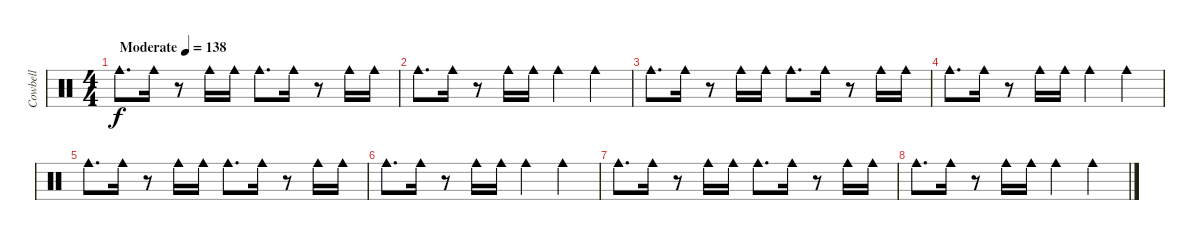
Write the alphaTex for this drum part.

\track ("Cowbell" "Cowbell") {instrument percussion}
\staff {score}
\articulation defaults
\ts (4 4)
\tempo (138 "Moderate")
\clef neutral
\ks c "Cowbell medium (hit)".8{d dy f} "Cowbell medium (hit)".16
r.8 "Cowbell medium (hit)".16 "Cowbell medium (hit)".16 "Cowbell medium (hit)".8{d} "Cowbell medium (hit)".16 r.8 "Cowbell medium (hit)".16 "Cowbell medium (hit)".16 |
"Cowbell medium (hit)".8{d} "Cowbell medium (hit)".16 r.8 "Cowbell medium (hit)".16 "Cowbell medium (hit)".16 "Cowbell medium (hit)".4 "Cowbell medium (hit)".4 |
"Cowbell medium (hit)".8{d} "Cowbell medium (hit)".16 r.8 "Cowbell medium (hit)".16 "Cowbell medium (hit)".16 "Cowbell medium (hit)".8{d} "Cowbell medium (hit)".16 r.8 "Cowbell medium (hit)".16 "Cowbell medium (hit)".16 |
"Cowbell medium (hit)".8{d} "Cowbell medium (hit)".16 r.8 "Cowbell medium (hit)".16 "Cowbell medium (hit)".16 "Cowbell medium (hit)".4 "Cowbell medium (hit)".4 |
"Cowbell medium (hit)".8{d} "Cowbell medium (hit)".16 r.8 "Cowbell medium (hit)".16 "Cowbell medium (hit)".16 "Cowbell medium (hit)".8{d} "Cowbell medium (hit)".16 r.8 "Cowbell medium (hit)".16 "Cowbell medium (hit)".16 |
"Cowbell medium (hit)".8{d} "Cowbell medium (hit)".16 r.8 "Cowbell medium (hit)".16 "Cowbell medium (hit)".16 "Cowbell medium (hit)".4 "Cowbell medium (hit)".4 |
"Cowbell medium (hit)".8{d} "Cowbell medium (hit)".16 r.8 "Cowbell medium (hit)".16 "Cowbell medium (hit)".16 "Cowbell medium (hit)".8{d} "Cowbell medium (hit)".16 r.8 "Cowbell medium (hit)".16 "Cowbell medium (hit)".16 |
"Cowbell medium (hit)".8{d} "Cowbell medium (hit)".16 r.8 "Cowbell medium (hit)".16 "Cowbell medium (hit)".16 "Cowbell medium (hit)".4 "Cowbell medium (hit)".4
